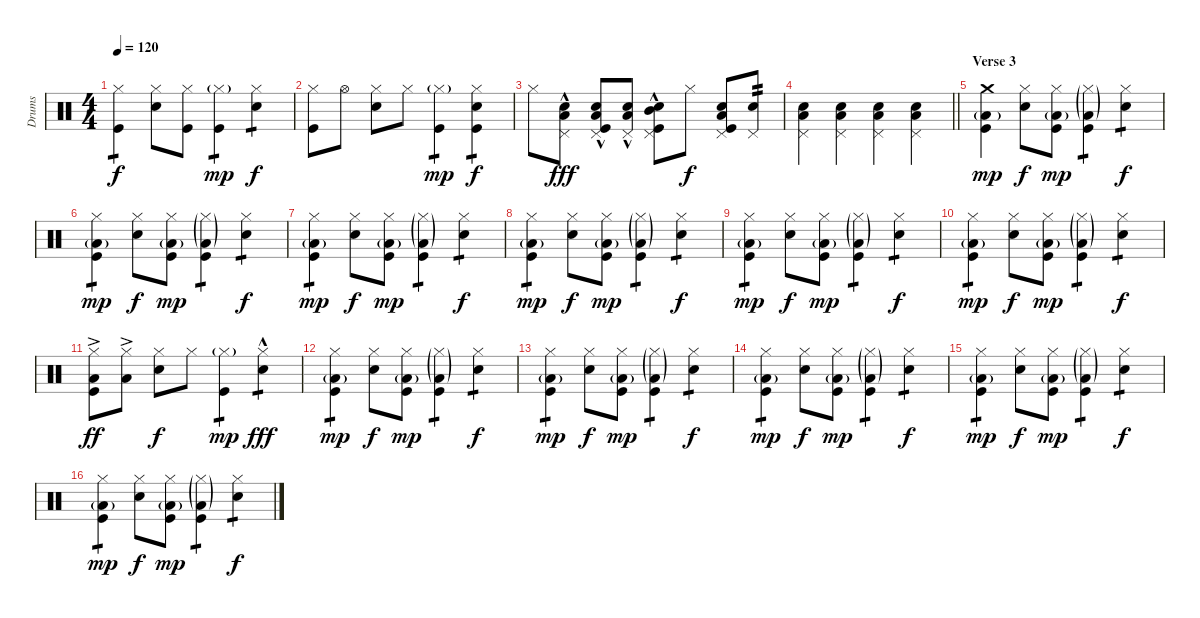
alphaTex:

\track ("Drums" "Drums") {instrument percussion}
\staff {score}
\articulation defaults
\ts (4 4)
\tempo 120
\clef neutral
\ks c
("Hi-Hat (closed)" "Kick (hit)").4{tp 1 dy f} ("Hi-Hat (closed)" "Snare (hit) 2").8 ("Hi-Hat (closed)" "Kick (hit)").8 ("Hi-Hat (closed)"{g} "Kick (hit)").4{tp 1 dy mp} ("Hi-Hat (closed)" "Snare (hit) 2").4{tp 1 dy f} |
("Hi-Hat (closed)" "Kick (hit)").8 "Hi-Hat (open)".8 ("Hi-Hat (closed)" "Snare (hit) 2").8 "Hi-Hat (closed)".8 ("Hi-Hat (closed)"{g} "Kick (hit)").4{tp 1 dy mp} ("Hi-Hat (closed)" "Snare (hit) 2" "Kick (hit)").4{tp 1 dy f} |
"Hi-Hat (closed)".8 ("Pedal Hi-Hat (hit)" "Snare (hit) 2" "Low Tom (hit)"{hac}).8{dy fff} ("Pedal Hi-Hat (hit)" "Snare (hit) 2" "Low Tom (hit)"{hac} "Kick (hit)").8 ("Pedal Hi-Hat (hit)" "Snare (hit) 2" "Low Tom (hit)"{hac}).8 ("Pedal Hi-Hat (hit)" "Snare (hit) 2" "Mid Tom (hit)"{hac} "Kick (hit)").8 "Hi-Hat (closed)".8{dy f} ("Pedal Hi-Hat (hit)" "Snare (hit) 2" "Low Tom (hit)" "Kick (hit)").8 ("Pedal Hi-Hat (hit)" "Snare (hit) 2").8{tp 2} |
\barLineRight lightlight
("Pedal Hi-Hat (hit)" "Snare (hit) 2" "Low Tom (hit)").4 ("Pedal Hi-Hat (hit)" "Snare (hit) 2" "Low Tom (hit)").4 ("Pedal Hi-Hat (hit)" "Snare (hit) 2" "Low Tom (hit)").4 ("Pedal Hi-Hat (hit)" "Snare (hit) 2" "Low Tom (hit)").4 |
\section ("" "Verse 3")
("Crash medium (hit)" "Low Tom (hit)"{g} "Kick (hit)").4{dy mp} ("Hi-Hat (closed)" "Snare (hit) 2").8{dy f} ("Hi-Hat (closed)" "Low Tom (hit)"{g} "Kick (hit)").8{dy mp} ("Hi-Hat (closed)"{g} "Low Tom (hit)"{g} "Kick (hit)").4{tp 1} ("Hi-Hat (closed)" "Snare (hit) 2").4{tp 1 dy f} |
("Hi-Hat (closed)" "Low Tom (hit)"{g} "Kick (hit)").4{tp 1 dy mp} ("Hi-Hat (closed)" "Snare (hit) 2").8{dy f} ("Hi-Hat (closed)" "Low Tom (hit)"{g} "Kick (hit)").8{dy mp} ("Hi-Hat (closed)"{g} "Low Tom (hit)"{g} "Kick (hit)").4{tp 1} ("Hi-Hat (closed)" "Snare (hit) 2").4{tp 1 dy f} |
("Hi-Hat (closed)" "Low Tom (hit)"{g} "Kick (hit)").4{tp 1 dy mp} ("Hi-Hat (closed)" "Snare (hit) 2").8{dy f} ("Hi-Hat (closed)" "Low Tom (hit)"{g} "Kick (hit)").8{dy mp} ("Hi-Hat (closed)"{g} "Low Tom (hit)"{g} "Kick (hit)").4{tp 1} ("Hi-Hat (closed)" "Snare (hit) 2").4{tp 1 dy f} |
("Hi-Hat (closed)" "Low Tom (hit)"{g} "Kick (hit)").4{tp 1 dy mp} ("Hi-Hat (closed)" "Snare (hit) 2").8{dy f} ("Hi-Hat (closed)" "Low Tom (hit)"{g} "Kick (hit)").8{dy mp} ("Hi-Hat (closed)"{g} "Low Tom (hit)"{g} "Kick (hit)").4{tp 1} ("Hi-Hat (closed)" "Snare (hit) 2").4{tp 1 dy f} |
("Hi-Hat (closed)" "Low Tom (hit)"{g} "Kick (hit)").4{tp 1 dy mp} ("Hi-Hat (closed)" "Snare (hit) 2").8{dy f} ("Hi-Hat (closed)" "Low Tom (hit)"{g} "Kick (hit)").8{dy mp} ("Hi-Hat (closed)"{g} "Low Tom (hit)"{g} "Kick (hit)").4{tp 1} ("Hi-Hat (closed)" "Snare (hit) 2").4{tp 1 dy f} |
("Hi-Hat (closed)" "Low Tom (hit)"{g} "Kick (hit)").4{tp 1 dy mp} ("Hi-Hat (closed)" "Snare (hit) 2").8{dy f} ("Hi-Hat (closed)" "Low Tom (hit)"{g} "Kick (hit)").8{dy mp} ("Hi-Hat (closed)"{g} "Low Tom (hit)"{g} "Kick (hit)").4{tp 1} ("Hi-Hat (closed)" "Snare (hit) 2").4{tp 1 dy f} |
("Hi-Hat (closed)" "Low Tom (hit)"{ac} "Kick (hit)").8{dy ff} ("Hi-Hat (closed)" "Low Tom (hit)"{ac}).8 ("Hi-Hat (closed)" "Snare (hit) 2").8{dy f} "Hi-Hat (closed)".8 ("Hi-Hat (closed)"{g} "Kick (hit)").4{tp 1 dy mp} ("Hi-Hat (closed)" "Snare (hit) 2"{hac}).4{tp 1 dy fff} |
("Hi-Hat (closed)" "Low Tom (hit)"{g} "Kick (hit)").4{tp 1 dy mp} ("Hi-Hat (closed)" "Snare (hit) 2").8{dy f} ("Hi-Hat (closed)" "Low Tom (hit)"{g} "Kick (hit)").8{dy mp} ("Hi-Hat (closed)"{g} "Low Tom (hit)"{g} "Kick (hit)").4{tp 1} ("Hi-Hat (closed)" "Snare (hit) 2").4{tp 1 dy f} |
("Hi-Hat (closed)" "Low Tom (hit)"{g} "Kick (hit)").4{tp 1 dy mp} ("Hi-Hat (closed)" "Snare (hit) 2").8{dy f} ("Hi-Hat (closed)" "Low Tom (hit)"{g} "Kick (hit)").8{dy mp} ("Hi-Hat (closed)"{g} "Low Tom (hit)"{g} "Kick (hit)").4{tp 1} ("Hi-Hat (closed)" "Snare (hit) 2").4{tp 1 dy f} |
("Hi-Hat (closed)" "Low Tom (hit)"{g} "Kick (hit)").4{tp 1 dy mp} ("Hi-Hat (closed)" "Snare (hit) 2").8{dy f} ("Hi-Hat (closed)" "Low Tom (hit)"{g} "Kick (hit)").8{dy mp} ("Hi-Hat (closed)"{g} "Low Tom (hit)"{g} "Kick (hit)").4{tp 1} ("Hi-Hat (closed)" "Snare (hit) 2").4{tp 1 dy f} |
("Hi-Hat (closed)" "Low Tom (hit)"{g} "Kick (hit)").4{tp 1 dy mp} ("Hi-Hat (closed)" "Snare (hit) 2").8{dy f} ("Hi-Hat (closed)" "Low Tom (hit)"{g} "Kick (hit)").8{dy mp} ("Hi-Hat (closed)"{g} "Low Tom (hit)"{g} "Kick (hit)").4{tp 1} ("Hi-Hat (closed)" "Snare (hit) 2").4{tp 1 dy f} |
("Hi-Hat (closed)" "Low Tom (hit)"{g} "Kick (hit)").4{tp 1 dy mp} ("Hi-Hat (closed)" "Snare (hit) 2").8{dy f} ("Hi-Hat (closed)" "Low Tom (hit)"{g} "Kick (hit)").8{dy mp} ("Hi-Hat (closed)"{g} "Low Tom (hit)"{g} "Kick (hit)").4{tp 1} ("Hi-Hat (closed)" "Snare (hit) 2").4{tp 1 dy f}
